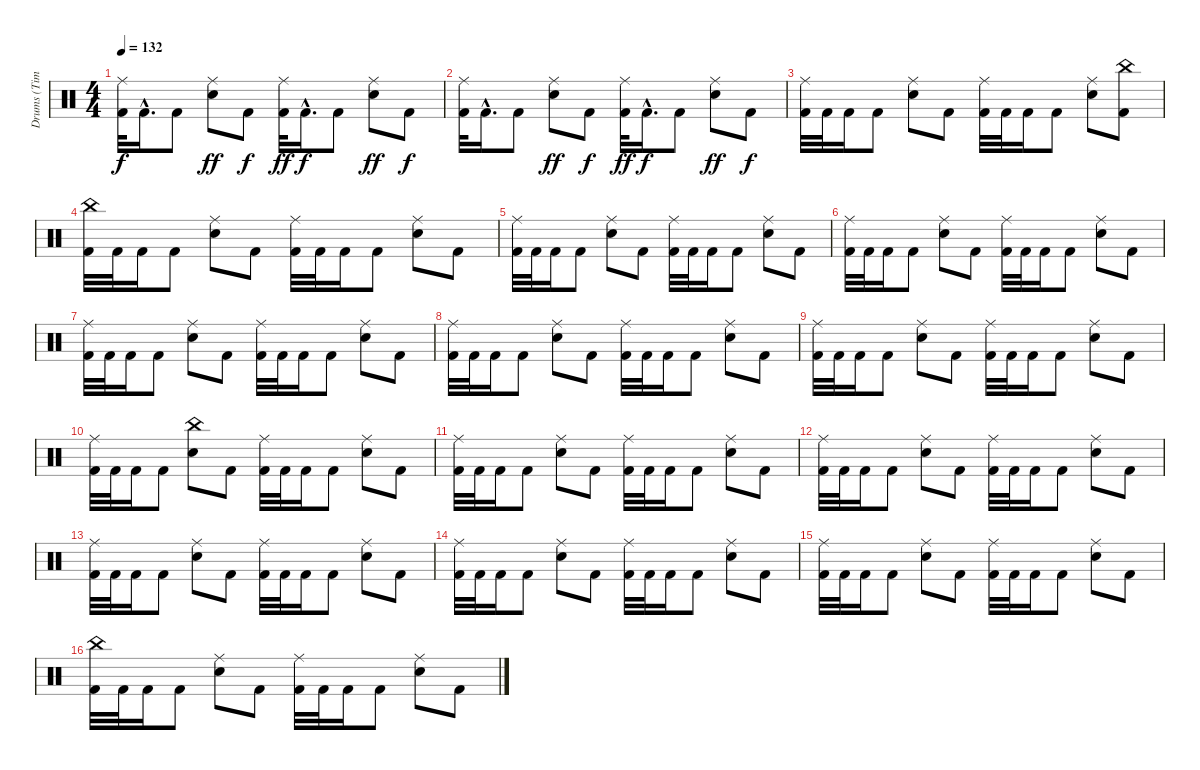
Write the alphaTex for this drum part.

\track ("Drums (Tim Alexander)" "Drums (Tim") {instrument percussion}
\staff {score}
\articulation defaults
\ts (4 4)
\tempo 132
\clef neutral
\ks c
("Ride (middle)" "Kick (hit) 2").32{dy f} "Kick (hit) 2"{hac}.16{d} "Kick (hit) 2".8 ("Ride (middle)" "Snare (hit) 2").8{dy ff} "Kick (hit) 2".8{dy f} ("Ride (middle)" "Kick (hit) 2").32{dy ff} "Kick (hit) 2"{hac}.16{d dy f} "Kick (hit) 2".8 ("Ride (middle)" "Snare (hit) 2").8{dy ff} "Kick (hit) 2".8{dy f} |
("Ride (middle)" "Kick (hit) 2").32 "Kick (hit) 2"{hac}.16{d} "Kick (hit) 2".8 ("Ride (middle)" "Snare (hit) 2").8{dy ff} "Kick (hit) 2".8{dy f} ("Ride (middle)" "Kick (hit) 2").32{dy ff} "Kick (hit) 2"{hac}.16{d dy f} "Kick (hit) 2".8 ("Ride (middle)" "Snare (hit) 2").8{dy ff} "Kick (hit) 2".8{dy f} |
("Ride (middle)" "Kick (hit) 2").32 "Kick (hit) 2".32 "Kick (hit) 2".16 "Kick (hit) 2".8 ("Ride (middle)" "Snare (hit) 2").8 "Kick (hit) 2".8 ("Ride (middle)" "Kick (hit) 2").32 "Kick (hit) 2".32 "Kick (hit) 2".16 "Kick (hit) 2".8 ("Ride (middle)" "Snare (hit) 2").8 ("China (hit)" "Kick (hit) 2").8 |
("China (hit)" "Kick (hit) 2").32 "Kick (hit) 2".32 "Kick (hit) 2".16 "Kick (hit) 2".8 ("Ride (middle)" "Snare (hit) 2").8 "Kick (hit) 2".8 ("Ride (middle)" "Kick (hit) 2").32 "Kick (hit) 2".32 "Kick (hit) 2".16 "Kick (hit) 2".8 ("Ride (middle)" "Snare (hit) 2").8 "Kick (hit) 2".8 |
("Ride (middle)" "Kick (hit) 2").32 "Kick (hit) 2".32 "Kick (hit) 2".16 "Kick (hit) 2".8 ("Ride (middle)" "Snare (hit) 2").8 "Kick (hit) 2".8 ("Ride (middle)" "Kick (hit) 2").32 "Kick (hit) 2".32 "Kick (hit) 2".16 "Kick (hit) 2".8 ("Ride (middle)" "Snare (hit) 2").8 "Kick (hit) 2".8 |
("Ride (middle)" "Kick (hit) 2").32 "Kick (hit) 2".32 "Kick (hit) 2".16 "Kick (hit) 2".8 ("Ride (middle)" "Snare (hit) 2").8 "Kick (hit) 2".8 ("Ride (middle)" "Kick (hit) 2").32 "Kick (hit) 2".32 "Kick (hit) 2".16 "Kick (hit) 2".8 ("Ride (middle)" "Snare (hit) 2").8 "Kick (hit) 2".8 |
("Ride (middle)" "Kick (hit) 2").32 "Kick (hit) 2".32 "Kick (hit) 2".16 "Kick (hit) 2".8 ("Ride (middle)" "Snare (hit) 2").8 "Kick (hit) 2".8 ("Ride (middle)" "Kick (hit) 2").32 "Kick (hit) 2".32 "Kick (hit) 2".16 "Kick (hit) 2".8 ("Ride (middle)" "Snare (hit) 2").8 "Kick (hit) 2".8 |
("Ride (middle)" "Kick (hit) 2").32 "Kick (hit) 2".32 "Kick (hit) 2".16 "Kick (hit) 2".8 ("Ride (middle)" "Snare (hit) 2").8 "Kick (hit) 2".8 ("Ride (middle)" "Kick (hit) 2").32 "Kick (hit) 2".32 "Kick (hit) 2".16 "Kick (hit) 2".8 ("Ride (middle)" "Snare (hit) 2").8 "Kick (hit) 2".8 |
("Ride (middle)" "Kick (hit) 2").32 "Kick (hit) 2".32 "Kick (hit) 2".16 "Kick (hit) 2".8 ("Ride (middle)" "Snare (hit) 2").8 "Kick (hit) 2".8 ("Ride (middle)" "Kick (hit) 2").32 "Kick (hit) 2".32 "Kick (hit) 2".16 "Kick (hit) 2".8 ("Ride (middle)" "Snare (hit) 2").8 "Kick (hit) 2".8 |
("Ride (middle)" "Kick (hit) 2").32 "Kick (hit) 2".32 "Kick (hit) 2".16 "Kick (hit) 2".8 ("China (hit)" "Snare (hit) 2").8 "Kick (hit) 2".8 ("Ride (middle)" "Kick (hit) 2").32 "Kick (hit) 2".32 "Kick (hit) 2".16 "Kick (hit) 2".8 ("Ride (middle)" "Snare (hit) 2").8 "Kick (hit) 2".8 |
("Ride (middle)" "Kick (hit) 2").32 "Kick (hit) 2".32 "Kick (hit) 2".16 "Kick (hit) 2".8 ("Ride (middle)" "Snare (hit) 2").8 "Kick (hit) 2".8 ("Ride (middle)" "Kick (hit) 2").32 "Kick (hit) 2".32 "Kick (hit) 2".16 "Kick (hit) 2".8 ("Ride (middle)" "Snare (hit) 2").8 "Kick (hit) 2".8 |
("Ride (middle)" "Kick (hit) 2").32 "Kick (hit) 2".32 "Kick (hit) 2".16 "Kick (hit) 2".8 ("Ride (middle)" "Snare (hit) 2").8 "Kick (hit) 2".8 ("Ride (middle)" "Kick (hit) 2").32 "Kick (hit) 2".32 "Kick (hit) 2".16 "Kick (hit) 2".8 ("Ride (middle)" "Snare (hit) 2").8 "Kick (hit) 2".8 |
("Ride (middle)" "Kick (hit) 2").32 "Kick (hit) 2".32 "Kick (hit) 2".16 "Kick (hit) 2".8 ("Ride (middle)" "Snare (hit) 2").8 "Kick (hit) 2".8 ("Ride (middle)" "Kick (hit) 2").32 "Kick (hit) 2".32 "Kick (hit) 2".16 "Kick (hit) 2".8 ("Ride (middle)" "Snare (hit) 2").8 "Kick (hit) 2".8 |
("Ride (middle)" "Kick (hit) 2").32 "Kick (hit) 2".32 "Kick (hit) 2".16 "Kick (hit) 2".8 ("Ride (middle)" "Snare (hit) 2").8 "Kick (hit) 2".8 ("Ride (middle)" "Kick (hit) 2").32 "Kick (hit) 2".32 "Kick (hit) 2".16 "Kick (hit) 2".8 ("Ride (middle)" "Snare (hit) 2").8 "Kick (hit) 2".8 |
("Ride (middle)" "Kick (hit) 2").32 "Kick (hit) 2".32 "Kick (hit) 2".16 "Kick (hit) 2".8 ("Ride (middle)" "Snare (hit) 2").8 "Kick (hit) 2".8 ("Ride (middle)" "Kick (hit) 2").32 "Kick (hit) 2".32 "Kick (hit) 2".16 "Kick (hit) 2".8 ("Ride (middle)" "Snare (hit) 2").8 "Kick (hit) 2".8 |
("China (hit)" "Kick (hit) 2").32 "Kick (hit) 2".32 "Kick (hit) 2".16 "Kick (hit) 2".8 ("Ride (middle)" "Snare (hit) 2").8 "Kick (hit) 2".8 ("Ride (middle)" "Kick (hit) 2").32 "Kick (hit) 2".32 "Kick (hit) 2".16 "Kick (hit) 2".8 ("Ride (middle)" "Snare (hit) 2").8 "Kick (hit) 2".8
